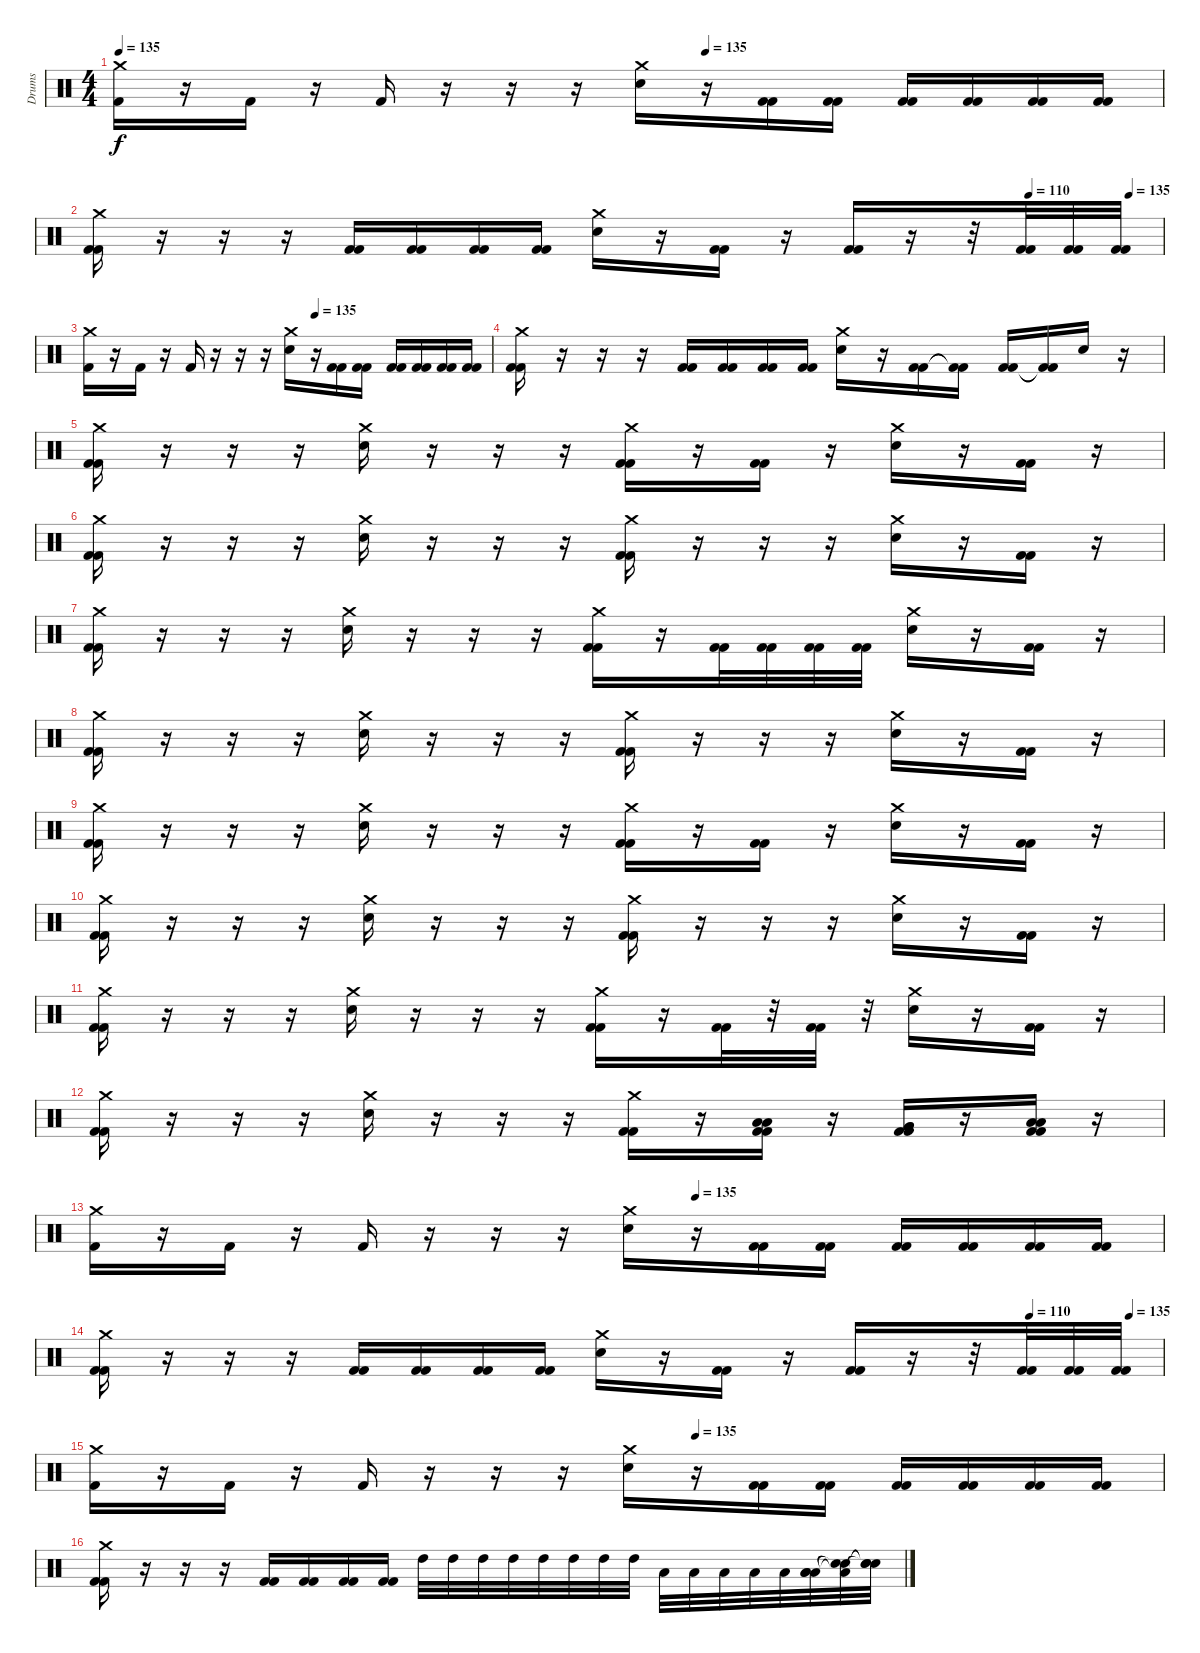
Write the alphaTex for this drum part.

\track ("Drums" "Drums") {instrument percussion}
\staff {score}
\articulation defaults
\ts (4 4)
\tempo 135
\tempo (135 0.5625)
\clef neutral
\ks c
("Crash medium (hit)" "Kick (hit) 2").16{dy f} r.16 "Kick (hit) 2".16 r.16 "Kick (hit) 2".16 r.16 r.16 r.16 ("Crash medium (hit)" "Snare (hit) 2").16 r.16 ("Kick (hit) 2" "Kick (hit) 2").16 ("Kick (hit) 2" "Kick (hit) 2").16 ("Kick (hit) 2" "Kick (hit) 2").16 ("Kick (hit) 2" "Kick (hit) 2").16 ("Kick (hit) 2" "Kick (hit) 2").16 ("Kick (hit) 2" "Kick (hit) 2").16 |
\tempo (110 0.875)
\tempo (135 0.96875)
("Kick (hit) 2" "Crash medium (hit)" "Kick (hit) 2").16 r.16 r.16 r.16 ("Kick (hit) 2" "Kick (hit) 2").16 ("Kick (hit) 2" "Kick (hit) 2").16 ("Kick (hit) 2" "Kick (hit) 2").16 ("Kick (hit) 2" "Kick (hit) 2").16 ("Crash medium (hit)" "Snare (hit) 2").16 r.16 ("Kick (hit) 2" "Kick (hit) 2").16 r.16 ("Kick (hit) 2" "Kick (hit) 2").16 r.16 r.32 ("Kick (hit) 2" "Kick (hit) 2").32 ("Kick (hit) 2" "Kick (hit) 2").32 ("Kick (hit) 2" "Kick (hit) 2").32 |
\tempo (135 0.5625)
("Crash medium (hit)" "Kick (hit) 2").16 r.16 "Kick (hit) 2".16 r.16 "Kick (hit) 2".16 r.16 r.16 r.16 ("Crash medium (hit)" "Snare (hit) 2").16 r.16 ("Kick (hit) 2" "Kick (hit) 2").16 ("Kick (hit) 2" "Kick (hit) 2").16 ("Kick (hit) 2" "Kick (hit) 2").16 ("Kick (hit) 2" "Kick (hit) 2").16 ("Kick (hit) 2" "Kick (hit) 2").16 ("Kick (hit) 2" "Kick (hit) 2").16 |
("Kick (hit) 2" "Crash medium (hit)" "Kick (hit) 2").16 r.16 r.16 r.16 ("Kick (hit) 2" "Kick (hit) 2").16 ("Kick (hit) 2" "Kick (hit) 2").16 ("Kick (hit) 2" "Kick (hit) 2").16 ("Kick (hit) 2" "Kick (hit) 2").16 ("Crash medium (hit)" "Snare (hit) 2").16 r.16 ("Kick (hit) 2" "Kick (hit) 2").16 ("Kick (hit) 2"{t} "Kick (hit) 2"{t}).16 ("Kick (hit) 2" "Kick (hit) 2").16 ("Kick (hit) 2"{t} "Kick (hit) 2"{t}).16 "Snare (hit) 2".16 r.16 |
("Kick (hit) 2" "Crash medium (hit)" "Kick (hit) 2").16 r.16 r.16 r.16 ("Crash medium (hit)" "Snare (hit) 2").16 r.16 r.16 r.16 ("Kick (hit) 2" "Crash medium (hit)" "Kick (hit) 2").16 r.16 ("Kick (hit) 2" "Kick (hit) 2").16 r.16 ("Crash medium (hit)" "Snare (hit) 2").16 r.16 ("Kick (hit) 2" "Kick (hit) 2").16 r.16 |
("Kick (hit) 2" "Crash medium (hit)" "Kick (hit) 2").16 r.16 r.16 r.16 ("Crash medium (hit)" "Snare (hit) 2").16 r.16 r.16 r.16 ("Kick (hit) 2" "Crash medium (hit)" "Kick (hit) 2").16 r.16 r.16 r.16 ("Crash medium (hit)" "Snare (hit) 2").16 r.16 ("Kick (hit) 2" "Kick (hit) 2").16 r.16 |
("Kick (hit) 2" "Crash medium (hit)" "Kick (hit) 2").16 r.16 r.16 r.16 ("Crash medium (hit)" "Snare (hit) 2").16 r.16 r.16 r.16 ("Kick (hit) 2" "Crash medium (hit)" "Kick (hit) 2").16 r.16 ("Kick (hit) 2" "Kick (hit) 2").32 ("Kick (hit) 2" "Kick (hit) 2").32 ("Kick (hit) 2" "Kick (hit) 2").32 ("Kick (hit) 2" "Kick (hit) 2").32 ("Crash medium (hit)" "Snare (hit) 2").16 r.16 ("Kick (hit) 2" "Kick (hit) 2").16 r.16 |
("Kick (hit) 2" "Crash medium (hit)" "Kick (hit) 2").16 r.16 r.16 r.16 ("Crash medium (hit)" "Snare (hit) 2").16 r.16 r.16 r.16 ("Kick (hit) 2" "Crash medium (hit)" "Kick (hit) 2").16 r.16 r.16 r.16 ("Crash medium (hit)" "Snare (hit) 2").16 r.16 ("Kick (hit) 2" "Kick (hit) 2").16 r.16 |
("Kick (hit) 2" "Crash medium (hit)" "Kick (hit) 2").16 r.16 r.16 r.16 ("Crash medium (hit)" "Snare (hit) 2").16 r.16 r.16 r.16 ("Kick (hit) 2" "Crash medium (hit)" "Kick (hit) 2").16 r.16 ("Kick (hit) 2" "Kick (hit) 2").16 r.16 ("Crash medium (hit)" "Snare (hit) 2").16 r.16 ("Kick (hit) 2" "Kick (hit) 2").16 r.16 |
("Kick (hit) 2" "Crash medium (hit)" "Kick (hit) 2").16 r.16 r.16 r.16 ("Crash medium (hit)" "Snare (hit) 2").16 r.16 r.16 r.16 ("Kick (hit) 2" "Crash medium (hit)" "Kick (hit) 2").16 r.16 r.16 r.16 ("Crash medium (hit)" "Snare (hit) 2").16 r.16 ("Kick (hit) 2" "Kick (hit) 2").16 r.16 |
("Kick (hit) 2" "Crash medium (hit)" "Kick (hit) 2").16 r.16 r.16 r.16 ("Crash medium (hit)" "Snare (hit) 2").16 r.16 r.16 r.16 ("Kick (hit) 2" "Crash medium (hit)" "Kick (hit) 2").16 r.16 ("Kick (hit) 2" "Kick (hit) 2").32 r.32 ("Kick (hit) 2" "Kick (hit) 2").32 r.32 ("Crash medium (hit)" "Snare (hit) 2").16 r.16 ("Kick (hit) 2" "Kick (hit) 2").16 r.16 |
("Kick (hit) 2" "Crash medium (hit)" "Kick (hit) 2").16 r.16 r.16 r.16 ("Crash medium (hit)" "Snare (hit) 2").16 r.16 r.16 r.16 ("Kick (hit) 2" "Crash medium (hit)" "Kick (hit) 2").16 r.16 ("Kick (hit) 2" "Low Tom (hit)" "Low Tom (hit)" "Kick (hit) 2").16 r.16 ("Kick (hit) 2" "Very Low Tom (hit)" "Very Low Tom (hit)" "Kick (hit) 2").16 r.16 ("Kick (hit) 2" "Low Floor Tom (hit)" "Low Floor Tom (hit)" "Kick (hit) 2").16 r.16 |
\tempo (135 0.5625)
("Crash medium (hit)" "Kick (hit) 2").16 r.16 "Kick (hit) 2".16 r.16 "Kick (hit) 2".16 r.16 r.16 r.16 ("Crash medium (hit)" "Snare (hit) 2").16 r.16 ("Kick (hit) 2" "Kick (hit) 2").16 ("Kick (hit) 2" "Kick (hit) 2").16 ("Kick (hit) 2" "Kick (hit) 2").16 ("Kick (hit) 2" "Kick (hit) 2").16 ("Kick (hit) 2" "Kick (hit) 2").16 ("Kick (hit) 2" "Kick (hit) 2").16 |
\tempo (110 0.875)
\tempo (135 0.96875)
("Kick (hit) 2" "Crash medium (hit)" "Kick (hit) 2").16 r.16 r.16 r.16 ("Kick (hit) 2" "Kick (hit) 2").16 ("Kick (hit) 2" "Kick (hit) 2").16 ("Kick (hit) 2" "Kick (hit) 2").16 ("Kick (hit) 2" "Kick (hit) 2").16 ("Crash medium (hit)" "Snare (hit) 2").16 r.16 ("Kick (hit) 2" "Kick (hit) 2").16 r.16 ("Kick (hit) 2" "Kick (hit) 2").16 r.16 r.32 ("Kick (hit) 2" "Kick (hit) 2").32 ("Kick (hit) 2" "Kick (hit) 2").32 ("Kick (hit) 2" "Kick (hit) 2").32 |
\tempo (135 0.5625)
("Crash medium (hit)" "Kick (hit) 2").16 r.16 "Kick (hit) 2".16 r.16 "Kick (hit) 2".16 r.16 r.16 r.16 ("Crash medium (hit)" "Snare (hit) 2").16 r.16 ("Kick (hit) 2" "Kick (hit) 2").16 ("Kick (hit) 2" "Kick (hit) 2").16 ("Kick (hit) 2" "Kick (hit) 2").16 ("Kick (hit) 2" "Kick (hit) 2").16 ("Kick (hit) 2" "Kick (hit) 2").16 ("Kick (hit) 2" "Kick (hit) 2").16 |
("Kick (hit) 2" "Crash medium (hit)" "Kick (hit) 2").16 r.16 r.16 r.16 ("Kick (hit) 2" "Kick (hit) 2").16 ("Kick (hit) 2" "Kick (hit) 2").16 ("Kick (hit) 2" "Kick (hit) 2").16 ("Kick (hit) 2" "Kick (hit) 2").16 "High Tom (hit)".32 "High Tom (hit)".32 "High Tom (hit)".32 "High Tom (hit)".32 "High Tom (hit)".32 "High Tom (hit)".32 "High Tom (hit)".32 "High Tom (hit)".32 "Low Tom (hit)".32 "Low Tom (hit)".32 "Low Tom (hit)".32 "Low Tom (hit)".32 "Low Tom (hit)".32 ("Low Floor Tom (hit)" "Low Floor Tom (hit)" "Low Floor Tom (hit)").32 ("Snare (hit)"{t} "Low Tom (hit)"{t} "Snare (hit)"{t}).32 ("Snare (hit)"{t} "Snare (hit)"{t} "Snare (hit)"{t}).32
